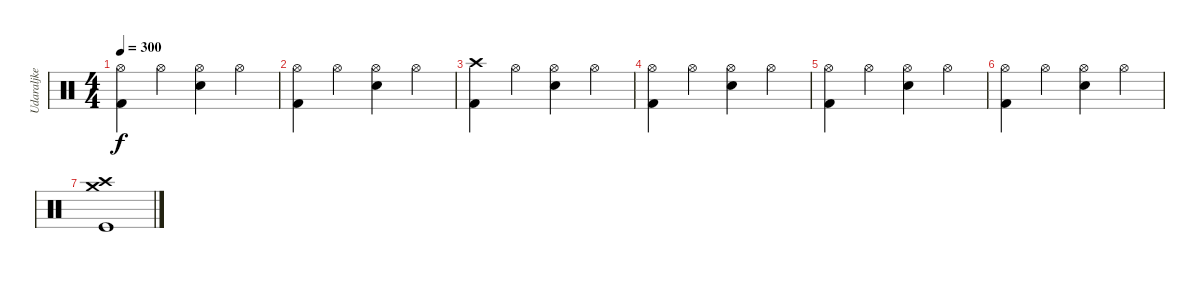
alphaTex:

\track ("Udaraljke" "Udaraljke") {instrument percussion}
\staff {score}
\articulation defaults
\ts (4 4)
\tempo 300
\clef neutral
\ks c
("Hi-Hat (open)" "Kick (hit) 2").4{dy f} "Hi-Hat (open)".4 ("Hi-Hat (open)" "Electric Snare (hit)").4 "Hi-Hat (open)".4 |
("Hi-Hat (open)" "Kick (hit) 2").4 "Hi-Hat (open)".4 ("Hi-Hat (open)" "Electric Snare (hit)").4 "Hi-Hat (open)".4 |
("Crash high (hit)" "Kick (hit) 2").4 "Hi-Hat (open)".4 ("Hi-Hat (open)" "Electric Snare (hit)").4 "Hi-Hat (open)".4 |
("Hi-Hat (open)" "Kick (hit) 2").4 "Hi-Hat (open)".4 ("Hi-Hat (open)" "Electric Snare (hit)").4 "Hi-Hat (open)".4 |
("Hi-Hat (open)" "Kick (hit) 2").4 "Hi-Hat (open)".4 ("Hi-Hat (open)" "Electric Snare (hit)").4 "Hi-Hat (open)".4 |
("Hi-Hat (open)" "Kick (hit) 2").4 "Hi-Hat (open)".4 ("Hi-Hat (open)" "Electric Snare (hit)").4 "Hi-Hat (open)".4 |
("Crash medium (hit)" "Crash high (hit)" "Kick (hit)").1
